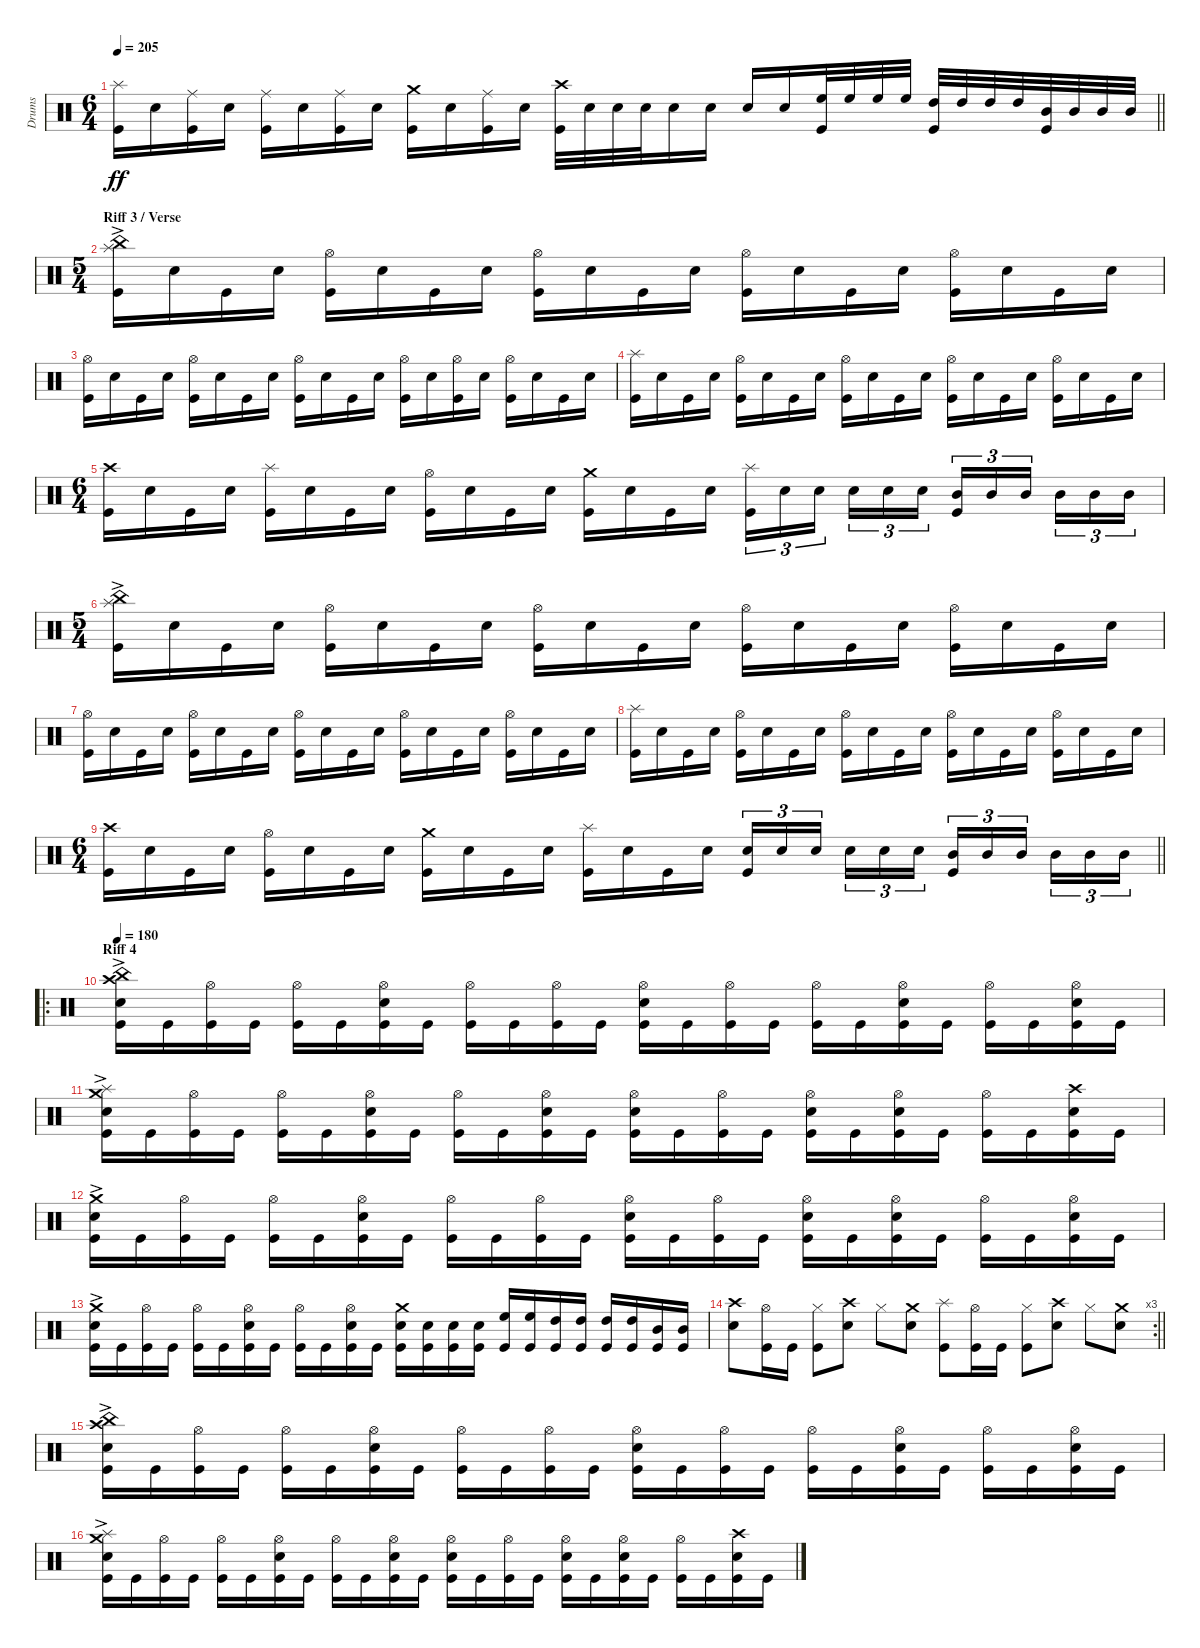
\track ("Drums" "Drums") {instrument percussion}
\staff {score}
\articulation defaults
\ts (6 4)
\tempo 205
\clef neutral
\barLineRight lightlight
\ks c
("Splash (hit)" "Kick (hit)").16{dy ff} "Electric Snare (hit)".16 ("Ride (middle)" "Kick (hit)").16 "Electric Snare (hit)".16 ("Ride (middle)" "Kick (hit)").16 "Electric Snare (hit)".16 ("Ride (middle)" "Kick (hit)").16 "Electric Snare (hit)".16 ("Crash medium (hit)" "Kick (hit)").16 "Electric Snare (hit)".16 ("Ride (middle)" "Kick (hit)").16 "Electric Snare (hit)".16 ("Crash high (hit)" "Kick (hit)").32 "Electric Snare (hit)".32 "Electric Snare (hit)".32 "Electric Snare (hit)".32 "Electric Snare (hit)".16 "Electric Snare (hit)".16 "Electric Snare (hit)".16 "Electric Snare (hit)".16 ("High Floor Tom (hit)" "Kick (hit)").32 "High Floor Tom (hit)".32 "High Floor Tom (hit)".32 "High Floor Tom (hit)".32 ("High Tom (hit)" "Kick (hit)").32 "High Tom (hit)".32 "High Tom (hit)".32 "High Tom (hit)".32 ("Mid Tom (hit)" "Kick (hit)").32 "Mid Tom (hit)".32 "Mid Tom (hit)".32 "Mid Tom (hit)".32 |
\ts (5 4)
\section ("" "Riff 3 / Verse")
("China (hit)"{ac} "Splash (hit)" "Kick (hit)").16 "Electric Snare (hit)".16 "Kick (hit)".16 "Electric Snare (hit)".16 ("Hi-Hat (open)" "Kick (hit)").16 "Electric Snare (hit)".16 "Kick (hit)".16 "Electric Snare (hit)".16 ("Hi-Hat (open)" "Kick (hit)").16 "Electric Snare (hit)".16 "Kick (hit)".16 "Electric Snare (hit)".16 ("Hi-Hat (open)" "Kick (hit)").16 "Electric Snare (hit)".16 "Kick (hit)".16 "Electric Snare (hit)".16 ("Hi-Hat (open)" "Kick (hit)").16 "Electric Snare (hit)".16 "Kick (hit)".16 "Electric Snare (hit)".16 |
("Hi-Hat (open)" "Kick (hit)").16 "Electric Snare (hit)".16 "Kick (hit)".16 "Electric Snare (hit)".16 ("Hi-Hat (open)" "Kick (hit)").16 "Electric Snare (hit)".16 "Kick (hit)".16 "Electric Snare (hit)".16 ("Hi-Hat (open)" "Kick (hit)").16 "Electric Snare (hit)".16 "Kick (hit)".16 "Electric Snare (hit)".16 ("Hi-Hat (open)" "Kick (hit)").16 "Electric Snare (hit)".16 ("Hi-Hat (open)" "Kick (hit)").16 "Electric Snare (hit)".16 ("Hi-Hat (open)" "Kick (hit)").16 "Electric Snare (hit)".16 "Kick (hit)".16 "Electric Snare (hit)".16 |
("Splash (hit)" "Kick (hit)").16 "Electric Snare (hit)".16 "Kick (hit)".16 "Electric Snare (hit)".16 ("Hi-Hat (open)" "Kick (hit)").16 "Electric Snare (hit)".16 "Kick (hit)".16 "Electric Snare (hit)".16 ("Hi-Hat (open)" "Kick (hit)").16 "Electric Snare (hit)".16 "Kick (hit)".16 "Electric Snare (hit)".16 ("Hi-Hat (open)" "Kick (hit)").16 "Electric Snare (hit)".16 "Kick (hit)".16 "Electric Snare (hit)".16 ("Hi-Hat (open)" "Kick (hit)").16 "Electric Snare (hit)".16 "Kick (hit)".16 "Electric Snare (hit)".16 |
\ts (6 4)
("Crash high (hit)" "Kick (hit)").16 "Electric Snare (hit)".16 "Kick (hit)".16 "Electric Snare (hit)".16 ("Splash (hit)" "Kick (hit)").16 "Electric Snare (hit)".16 "Kick (hit)".16 "Electric Snare (hit)".16 ("Hi-Hat (open)" "Kick (hit)").16 "Electric Snare (hit)".16 "Kick (hit)".16 "Electric Snare (hit)".16 ("Crash medium (hit)" "Kick (hit)").16 "Electric Snare (hit)".16 "Kick (hit)".16 "Electric Snare (hit)".16{beam splitsecondary} ("Splash (hit)" "Kick (hit)").16{tu (3 2)} "Electric Snare (hit)".16{tu (3 2)} "Electric Snare (hit)".16{tu (3 2) beam splitsecondary} "Electric Snare (hit)".16{tu (3 2)} "Electric Snare (hit)".16{tu (3 2)} "Electric Snare (hit)".16{tu (3 2) beam splitsecondary} ("Mid Tom (hit)" "Kick (hit)").16{tu (3 2)} "Mid Tom (hit)".16{tu (3 2)} "Mid Tom (hit)".16{tu (3 2) beam splitsecondary} "Mid Tom (hit)".16{tu (3 2)} "Mid Tom (hit)".16{tu (3 2)} "Mid Tom (hit)".16{tu (3 2)} |
\ts (5 4)
("China (hit)"{ac} "Splash (hit)" "Kick (hit)").16 "Electric Snare (hit)".16 "Kick (hit)".16 "Electric Snare (hit)".16 ("Hi-Hat (open)" "Kick (hit)").16 "Electric Snare (hit)".16 "Kick (hit)".16 "Electric Snare (hit)".16 ("Hi-Hat (open)" "Kick (hit)").16 "Electric Snare (hit)".16 "Kick (hit)".16 "Electric Snare (hit)".16 ("Hi-Hat (open)" "Kick (hit)").16 "Electric Snare (hit)".16 "Kick (hit)".16 "Electric Snare (hit)".16 ("Hi-Hat (open)" "Kick (hit)").16 "Electric Snare (hit)".16 "Kick (hit)".16 "Electric Snare (hit)".16 |
("Hi-Hat (open)" "Kick (hit)").16 "Electric Snare (hit)".16 "Kick (hit)".16 "Electric Snare (hit)".16 ("Hi-Hat (open)" "Kick (hit)").16 "Electric Snare (hit)".16 "Kick (hit)".16 "Electric Snare (hit)".16 ("Hi-Hat (open)" "Kick (hit)").16 "Electric Snare (hit)".16 "Kick (hit)".16 "Electric Snare (hit)".16 ("Hi-Hat (open)" "Kick (hit)").16 "Electric Snare (hit)".16 "Kick (hit)".16 "Electric Snare (hit)".16 ("Hi-Hat (open)" "Kick (hit)").16 "Electric Snare (hit)".16 "Kick (hit)".16 "Electric Snare (hit)".16 |
("Splash (hit)" "Kick (hit)").16 "Electric Snare (hit)".16 "Kick (hit)".16 "Electric Snare (hit)".16 ("Hi-Hat (open)" "Kick (hit)").16 "Electric Snare (hit)".16 "Kick (hit)".16 "Electric Snare (hit)".16 ("Hi-Hat (open)" "Kick (hit)").16 "Electric Snare (hit)".16 "Kick (hit)".16 "Electric Snare (hit)".16 ("Hi-Hat (open)" "Kick (hit)").16 "Electric Snare (hit)".16 "Kick (hit)".16 "Electric Snare (hit)".16 ("Hi-Hat (open)" "Kick (hit)").16 "Electric Snare (hit)".16 "Kick (hit)".16 "Electric Snare (hit)".16 |
\ts (6 4)
\barLineRight lightlight
("Crash high (hit)" "Kick (hit)").16 "Electric Snare (hit)".16 "Kick (hit)".16 "Electric Snare (hit)".16 ("Hi-Hat (open)" "Kick (hit)").16 "Electric Snare (hit)".16 "Kick (hit)".16 "Electric Snare (hit)".16 ("Crash medium (hit)" "Kick (hit)").16 "Electric Snare (hit)".16 "Kick (hit)".16 "Electric Snare (hit)".16 ("Splash (hit)" "Kick (hit)").16 "Electric Snare (hit)".16 "Kick (hit)".16 "Electric Snare (hit)".16{beam splitsecondary} ("Electric Snare (hit)" "Kick (hit)").16{tu (3 2)} "Electric Snare (hit)".16{tu (3 2)} "Electric Snare (hit)".16{tu (3 2) beam splitsecondary} "Electric Snare (hit)".16{tu (3 2)} "Electric Snare (hit)".16{tu (3 2)} "Electric Snare (hit)".16{tu (3 2) beam splitsecondary} ("Mid Tom (hit)" "Kick (hit)").16{tu (3 2)} "Mid Tom (hit)".16{tu (3 2)} "Mid Tom (hit)".16{tu (3 2) beam splitsecondary} "Mid Tom (hit)".16{tu (3 2)} "Mid Tom (hit)".16{tu (3 2)} "Mid Tom (hit)".16{tu (3 2)} |
\ro
\section ("" "Riff 4")
\tempo 180
("China (hit)"{ac} "Crash high (hit)" "Electric Snare (hit)" "Kick (hit)").16 "Kick (hit)".16 ("Hi-Hat (open)" "Kick (hit)").16 "Kick (hit)".16 ("Hi-Hat (open)" "Kick (hit)").16 "Kick (hit)".16 ("Hi-Hat (open)" "Electric Snare (hit)" "Kick (hit)").16 "Kick (hit)".16 ("Hi-Hat (open)" "Kick (hit)").16 "Kick (hit)".16 ("Hi-Hat (open)" "Kick (hit)").16 "Kick (hit)".16 ("Hi-Hat (open)" "Electric Snare (hit)" "Kick (hit)").16 "Kick (hit)".16 ("Hi-Hat (open)" "Kick (hit)").16 "Kick (hit)".16 ("Hi-Hat (open)" "Kick (hit)").16 "Kick (hit)".16 ("Hi-Hat (open)" "Electric Snare (hit)" "Kick (hit)").16 "Kick (hit)".16 ("Hi-Hat (open)" "Kick (hit)").16 "Kick (hit)".16 ("Hi-Hat (open)" "Electric Snare (hit)" "Kick (hit)").16 "Kick (hit)".16 |
("Crash medium (hit)" "Splash (hit)"{ac} "Electric Snare (hit)" "Kick (hit)").16 "Kick (hit)".16 ("Hi-Hat (open)" "Kick (hit)").16 "Kick (hit)".16 ("Hi-Hat (open)" "Kick (hit)").16 "Kick (hit)".16 ("Hi-Hat (open)" "Electric Snare (hit)" "Kick (hit)").16 "Kick (hit)".16 ("Hi-Hat (open)" "Kick (hit)").16 "Kick (hit)".16 ("Hi-Hat (open)" "Electric Snare (hit)" "Kick (hit)").16 "Kick (hit)".16 ("Hi-Hat (open)" "Electric Snare (hit)" "Kick (hit)").16 "Kick (hit)".16 ("Hi-Hat (open)" "Kick (hit)").16 "Kick (hit)".16 ("Hi-Hat (open)" "Electric Snare (hit)" "Kick (hit)").16 "Kick (hit)".16 ("Hi-Hat (open)" "Electric Snare (hit)" "Kick (hit)").16 "Kick (hit)".16 ("Hi-Hat (open)" "Kick (hit)").16 "Kick (hit)".16 ("Crash high (hit)" "Electric Snare (hit)" "Kick (hit)").16 "Kick (hit)".16 |
("Crash medium (hit)"{ac} "Electric Snare (hit)" "Kick (hit)").16 "Kick (hit)".16 ("Hi-Hat (open)" "Kick (hit)").16 "Kick (hit)".16 ("Hi-Hat (open)" "Kick (hit)").16 "Kick (hit)".16 ("Hi-Hat (open)" "Electric Snare (hit)" "Kick (hit)").16 "Kick (hit)".16 ("Hi-Hat (open)" "Kick (hit)").16 "Kick (hit)".16 ("Hi-Hat (open)" "Kick (hit)").16 "Kick (hit)".16 ("Hi-Hat (open)" "Electric Snare (hit)" "Kick (hit)").16 "Kick (hit)".16 ("Hi-Hat (open)" "Kick (hit)").16 "Kick (hit)".16 ("Hi-Hat (open)" "Electric Snare (hit)" "Kick (hit)").16 "Kick (hit)".16 ("Hi-Hat (open)" "Electric Snare (hit)" "Kick (hit)").16 "Kick (hit)".16 ("Hi-Hat (open)" "Kick (hit)").16 "Kick (hit)".16 ("Hi-Hat (open)" "Electric Snare (hit)" "Kick (hit)").16 "Kick (hit)".16 |
("Crash medium (hit)"{ac} "Electric Snare (hit)" "Kick (hit)").16 "Kick (hit)".16 ("Hi-Hat (open)" "Kick (hit)").16 "Kick (hit)".16 ("Hi-Hat (open)" "Kick (hit)").16 "Kick (hit)".16 ("Hi-Hat (open)" "Electric Snare (hit)" "Kick (hit)").16 "Kick (hit)".16 ("Hi-Hat (open)" "Kick (hit)").16 "Kick (hit)".16 ("Hi-Hat (open)" "Electric Snare (hit)" "Kick (hit)").16 "Kick (hit)".16 ("Crash medium (hit)" "Electric Snare (hit)" "Kick (hit)").16 ("Electric Snare (hit)" "Kick (hit)").16 ("Electric Snare (hit)" "Kick (hit)").16 ("Electric Snare (hit)" "Kick (hit)").16 ("High Floor Tom (hit)" "Kick (hit)").16 ("High Floor Tom (hit)" "Kick (hit)").16 ("High Tom (hit)" "Kick (hit)").16 ("High Tom (hit)" "Kick (hit)").16 ("High Tom (hit)" "Kick (hit)").16 ("High Tom (hit)" "Kick (hit)").16 ("Mid Tom (hit)" "Kick (hit)").16 ("Mid Tom (hit)" "Kick (hit)").16 |
\rc 3
\barLineRight lightlight
("Crash high (hit)" "Electric Snare (hit)").8 ("Hi-Hat (open)" "Kick (hit)").16 "Kick (hit)".16 ("Hi-Hat (closed)" "Kick (hit)").8 ("Crash high (hit)" "Electric Snare (hit)").8 "Hi-Hat (closed)".8 ("Crash medium (hit)" "Electric Snare (hit)").8 ("Splash (hit)" "Kick (hit)").8 ("Hi-Hat (open)" "Kick (hit)").16 "Kick (hit)".16 ("Hi-Hat (closed)" "Kick (hit)").8 ("Crash high (hit)" "Electric Snare (hit)").8 "Hi-Hat (closed)".8 ("Crash medium (hit)" "Electric Snare (hit)").8 |
\section ("" "")
("China (hit)"{ac} "Crash high (hit)" "Electric Snare (hit)" "Kick (hit)").16 "Kick (hit)".16 ("Hi-Hat (open)" "Kick (hit)").16 "Kick (hit)".16 ("Hi-Hat (open)" "Kick (hit)").16 "Kick (hit)".16 ("Hi-Hat (open)" "Electric Snare (hit)" "Kick (hit)").16 "Kick (hit)".16 ("Hi-Hat (open)" "Kick (hit)").16 "Kick (hit)".16 ("Hi-Hat (open)" "Kick (hit)").16 "Kick (hit)".16 ("Hi-Hat (open)" "Electric Snare (hit)" "Kick (hit)").16 "Kick (hit)".16 ("Hi-Hat (open)" "Kick (hit)").16 "Kick (hit)".16 ("Hi-Hat (open)" "Kick (hit)").16 "Kick (hit)".16 ("Hi-Hat (open)" "Electric Snare (hit)" "Kick (hit)").16 "Kick (hit)".16 ("Hi-Hat (open)" "Kick (hit)").16 "Kick (hit)".16 ("Hi-Hat (open)" "Electric Snare (hit)" "Kick (hit)").16 "Kick (hit)".16 |
("Crash medium (hit)" "Splash (hit)"{ac} "Electric Snare (hit)" "Kick (hit)").16 "Kick (hit)".16 ("Hi-Hat (open)" "Kick (hit)").16 "Kick (hit)".16 ("Hi-Hat (open)" "Kick (hit)").16 "Kick (hit)".16 ("Hi-Hat (open)" "Electric Snare (hit)" "Kick (hit)").16 "Kick (hit)".16 ("Hi-Hat (open)" "Kick (hit)").16 "Kick (hit)".16 ("Hi-Hat (open)" "Electric Snare (hit)" "Kick (hit)").16 "Kick (hit)".16 ("Hi-Hat (open)" "Electric Snare (hit)" "Kick (hit)").16 "Kick (hit)".16 ("Hi-Hat (open)" "Kick (hit)").16 "Kick (hit)".16 ("Hi-Hat (open)" "Electric Snare (hit)" "Kick (hit)").16 "Kick (hit)".16 ("Hi-Hat (open)" "Electric Snare (hit)" "Kick (hit)").16 "Kick (hit)".16 ("Hi-Hat (open)" "Kick (hit)").16 "Kick (hit)".16 ("Crash high (hit)" "Electric Snare (hit)" "Kick (hit)").16 "Kick (hit)".16
